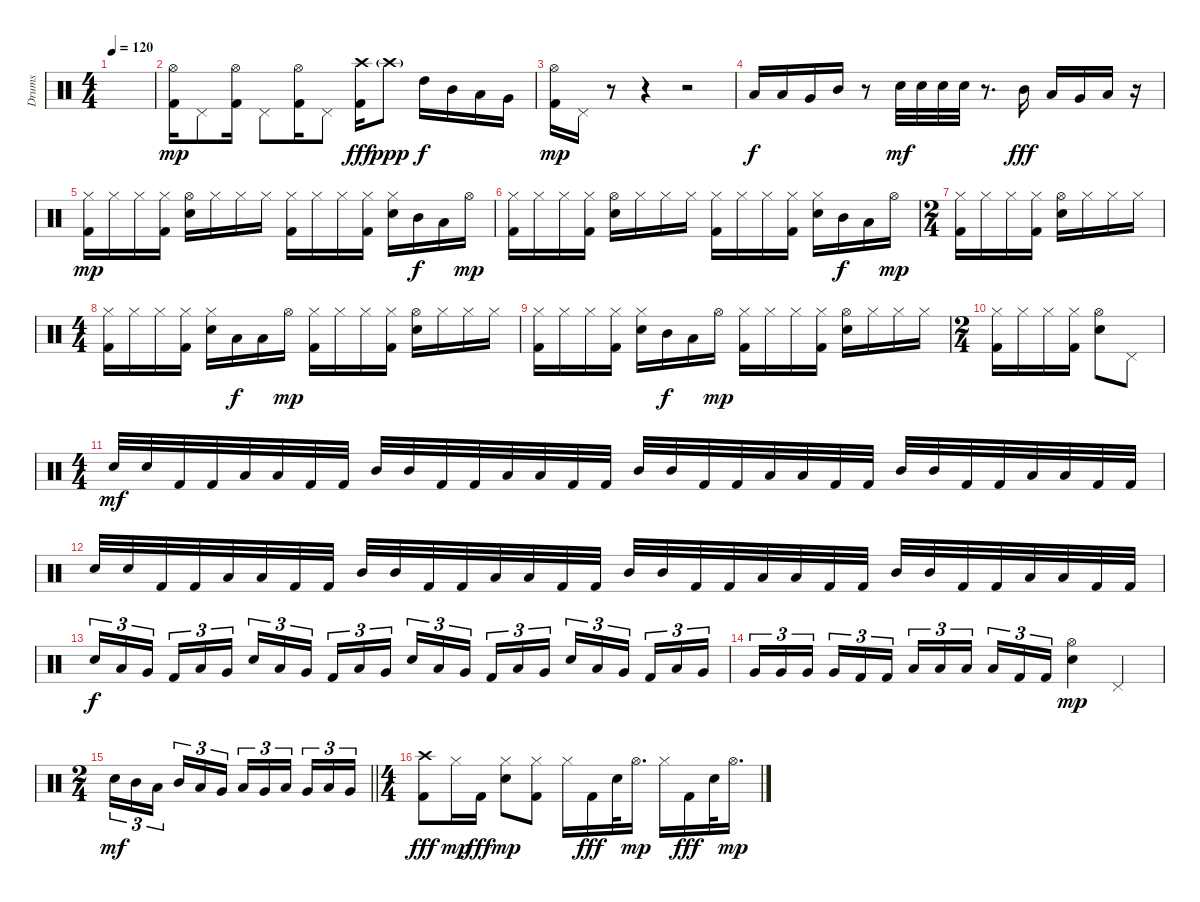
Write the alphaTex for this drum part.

\track ("Drums" "Drums") {instrument percussion}
\staff {score}
\articulation defaults
\ts (4 4)
\tempo 120
\clef neutral
\ks c
|
("Kick (hit) 2" "Hi-Hat (open)").16{dy mp} "Pedal Hi-Hat (hit)".8 ("Kick (hit) 2" "Hi-Hat (open)").16 "Pedal Hi-Hat (hit)".8 ("Kick (hit) 2" "Hi-Hat (open)").16 "Pedal Hi-Hat (hit)".8 ("Kick (hit) 2" "Crash high (hit)").16{dy fff} "Crash high (hit)"{g}.8{dy ppp} "High Tom (hit)".16{dy f} "Mid Tom (hit)".16 "Low Tom (hit)".16 "Very Low Tom (hit)".16 |
("Kick (hit) 2" "Hi-Hat (open)").16{dy mp} "Pedal Hi-Hat (hit)".16 r.8 r.4 r.2 |
"Low Floor Tom (hit)".16{dy f} "Low Floor Tom (hit)".16 "Very Low Tom (hit)".16 "Mid Tom (hit)".16 r.8 "Electric Snare (hit)".32{dy mf} "Electric Snare (hit)".32 "Electric Snare (hit)".32 "Electric Snare (hit)".32 r.8{d} "Mid Tom (hit)".16{dy fff} "Low Tom (hit)".16 "Very Low Tom (hit)".16 "Low Floor Tom (hit)".16 r.16 |
("Kick (hit) 2" "Hi-Hat (closed)").16{dy mp} "Hi-Hat (closed)".16 "Hi-Hat (closed)".16 ("Kick (hit) 2" "Hi-Hat (closed)").16 ("Electric Snare (hit)" "Hi-Hat (open)").16 "Hi-Hat (closed)".16 "Hi-Hat (closed)".16 "Hi-Hat (closed)".16 ("Kick (hit) 2" "Hi-Hat (closed)").16 "Hi-Hat (closed)".16 "Hi-Hat (closed)".16 ("Kick (hit) 2" "Hi-Hat (closed)").16 ("Electric Snare (hit)" "Hi-Hat (closed)").16 "Mid Tom (hit)".16{dy f} "Low Tom (hit)".16 "Hi-Hat (open)".16{dy mp} |
("Kick (hit) 2" "Hi-Hat (closed)").16 "Hi-Hat (closed)".16 "Hi-Hat (closed)".16 ("Kick (hit) 2" "Hi-Hat (closed)").16 ("Electric Snare (hit)" "Hi-Hat (open)").16 "Hi-Hat (closed)".16 "Hi-Hat (closed)".16 "Hi-Hat (closed)".16 ("Kick (hit) 2" "Hi-Hat (closed)").16 "Hi-Hat (closed)".16 "Hi-Hat (closed)".16 ("Kick (hit) 2" "Hi-Hat (closed)").16 ("Electric Snare (hit)" "Hi-Hat (closed)").16 "Mid Tom (hit)".16{dy f} "Low Tom (hit)".16 "Hi-Hat (open)".16{dy mp} |
\ts (2 4)
("Kick (hit) 2" "Hi-Hat (closed)").16 "Hi-Hat (closed)".16 "Hi-Hat (closed)".16 ("Kick (hit) 2" "Hi-Hat (closed)").16 ("Electric Snare (hit)" "Hi-Hat (open)").16 "Hi-Hat (closed)".16 "Hi-Hat (closed)".16 "Hi-Hat (closed)".16 |
\ts (4 4)
("Kick (hit) 2" "Hi-Hat (closed)").16 "Hi-Hat (closed)".16 "Hi-Hat (closed)".16 ("Kick (hit) 2" "Hi-Hat (closed)").16 ("Electric Snare (hit)" "Hi-Hat (closed)").16 "Low Tom (hit)".16{dy f} "Low Tom (hit)".16 "Hi-Hat (open)".16{dy mp} ("Kick (hit) 2" "Hi-Hat (closed)").16 "Hi-Hat (closed)".16 "Hi-Hat (closed)".16 ("Kick (hit) 2" "Hi-Hat (closed)").16 ("Electric Snare (hit)" "Hi-Hat (open)").16 "Hi-Hat (closed)".16 "Hi-Hat (closed)".16 "Hi-Hat (closed)".16 |
("Kick (hit) 2" "Hi-Hat (closed)").16 "Hi-Hat (closed)".16 "Hi-Hat (closed)".16 ("Kick (hit) 2" "Hi-Hat (closed)").16 ("Electric Snare (hit)" "Hi-Hat (closed)").16 "Mid Tom (hit)".16{dy f} "Low Tom (hit)".16 "Hi-Hat (open)".16{dy mp} ("Kick (hit) 2" "Hi-Hat (closed)").16 "Hi-Hat (closed)".16 "Hi-Hat (closed)".16 ("Kick (hit) 2" "Hi-Hat (closed)").16 ("Electric Snare (hit)" "Hi-Hat (open)").16 "Hi-Hat (closed)".16 "Hi-Hat (closed)".16 "Hi-Hat (closed)".16 |
\ts (2 4)
("Kick (hit) 2" "Hi-Hat (closed)").16 "Hi-Hat (closed)".16 "Hi-Hat (closed)".16 ("Kick (hit) 2" "Hi-Hat (closed)").16 ("Electric Snare (hit)" "Hi-Hat (open)").8 "Pedal Hi-Hat (hit)".8 |
\ts (4 4)
"Electric Snare (hit)".32{dy mf} "Electric Snare (hit)".32 "Kick (hit) 2".32 "Kick (hit) 2".32 "Low Tom (hit)".32 "Low Tom (hit)".32 "Kick (hit) 2".32 "Kick (hit) 2".32 "Mid Tom (hit)".32 "Mid Tom (hit)".32 "Kick (hit) 2".32 "Kick (hit) 2".32 "Low Tom (hit)".32 "Low Tom (hit)".32 "Kick (hit) 2".32 "Kick (hit) 2".32 "Mid Tom (hit)".32 "Mid Tom (hit)".32 "Kick (hit) 2".32 "Kick (hit) 2".32 "Low Tom (hit)".32 "Low Tom (hit)".32 "Kick (hit) 2".32 "Kick (hit) 2".32 "Mid Tom (hit)".32 "Mid Tom (hit)".32 "Kick (hit) 2".32 "Kick (hit) 2".32 "Low Tom (hit)".32 "Low Tom (hit)".32 "Kick (hit) 2".32 "Kick (hit) 2".32 |
"Electric Snare (hit)".32 "Electric Snare (hit)".32 "Kick (hit) 2".32 "Kick (hit) 2".32 "Low Tom (hit)".32 "Low Tom (hit)".32 "Kick (hit) 2".32 "Kick (hit) 2".32 "Mid Tom (hit)".32 "Mid Tom (hit)".32 "Kick (hit) 2".32 "Kick (hit) 2".32 "Low Tom (hit)".32 "Low Tom (hit)".32 "Kick (hit) 2".32 "Kick (hit) 2".32 "Mid Tom (hit)".32 "Mid Tom (hit)".32 "Kick (hit) 2".32 "Kick (hit) 2".32 "Low Tom (hit)".32 "Low Tom (hit)".32 "Kick (hit) 2".32 "Kick (hit) 2".32 "Mid Tom (hit)".32 "Mid Tom (hit)".32 "Kick (hit) 2".32 "Kick (hit) 2".32 "Low Tom (hit)".32 "Low Tom (hit)".32 "Kick (hit) 2".32 "Kick (hit) 2".32 |
"Electric Snare (hit)".16{tu (3 2) dy f} "Low Tom (hit)".16{tu (3 2)} "Very Low Tom (hit)".16{tu (3 2) beam splitsecondary} "Kick (hit) 2".16{tu (3 2)} "Low Tom (hit)".16{tu (3 2)} "Very Low Tom (hit)".16{tu (3 2)} "Electric Snare (hit)".16{tu (3 2)} "Low Tom (hit)".16{tu (3 2)} "Very Low Tom (hit)".16{tu (3 2) beam splitsecondary} "Kick (hit) 2".16{tu (3 2)} "Low Tom (hit)".16{tu (3 2)} "Very Low Tom (hit)".16{tu (3 2)} "Electric Snare (hit)".16{tu (3 2)} "Low Tom (hit)".16{tu (3 2)} "Very Low Tom (hit)".16{tu (3 2) beam splitsecondary} "Kick (hit) 2".16{tu (3 2)} "Low Tom (hit)".16{tu (3 2)} "Very Low Tom (hit)".16{tu (3 2)} "Electric Snare (hit)".16{tu (3 2)} "Low Tom (hit)".16{tu (3 2)} "Very Low Tom (hit)".16{tu (3 2) beam splitsecondary} "Kick (hit) 2".16{tu (3 2)} "Low Tom (hit)".16{tu (3 2)} "Very Low Tom (hit)".16{tu (3 2)} |
"Very Low Tom (hit)".16{tu (3 2)} "Very Low Tom (hit)".16{tu (3 2)} "Very Low Tom (hit)".16{tu (3 2) beam splitsecondary} "Very Low Tom (hit)".16{tu (3 2)} "Kick (hit) 2".16{tu (3 2)} "Kick (hit) 2".16{tu (3 2)} "Low Tom (hit)".16{tu (3 2)} "Low Tom (hit)".16{tu (3 2)} "Low Tom (hit)".16{tu (3 2) beam splitsecondary} "Low Tom (hit)".16{tu (3 2)} "Kick (hit) 2".16{tu (3 2)} "Kick (hit) 2".16{tu (3 2)} ("Electric Snare (hit)" "Hi-Hat (open)").4{dy mp} "Pedal Hi-Hat (hit)".4 |
\ts (2 4)
\barLineRight lightlight "Electric Snare (hit)".16{tu (3 2) dy mf} "Mid Tom (hit)".16{tu (3 2)} "Low Tom (hit)".16{tu (3 2) beam splitsecondary} "Mid Tom (hit)".16{tu (3 2)} "Low Tom (hit)".16{tu (3 2)} "Very Low Tom (hit)".16{tu (3 2)} "Low Tom (hit)".16{tu (3 2)} "Very Low Tom (hit)".16{tu (3 2)} "Low Tom (hit)".16{tu (3 2) beam splitsecondary} "Very Low Tom (hit)".16{tu (3 2)} "Low Floor Tom (hit)".16{tu (3 2)} "Very Low Tom (hit)".16{tu (3 2)}
|
\ts (4 4)
("Kick (hit) 2" "Crash high (hit)").8{dy fff} "Hi-Hat (closed)".16{dy mp} "Kick (hit) 2".16{dy fff} ("Electric Snare (hit)" "Hi-Hat (closed)").8{dy mp} ("Kick (hit) 2" "Hi-Hat (closed)").8 "Hi-Hat (closed)".16 "Kick (hit) 2".16{dy fff} "Electric Snare (hit)".32 "Hi-Hat (open)".16{d dy mp} "Hi-Hat (closed)".16 "Kick (hit) 2".16{dy fff} "Electric Snare (hit)".32 "Hi-Hat (open)".16{d dy mp}
